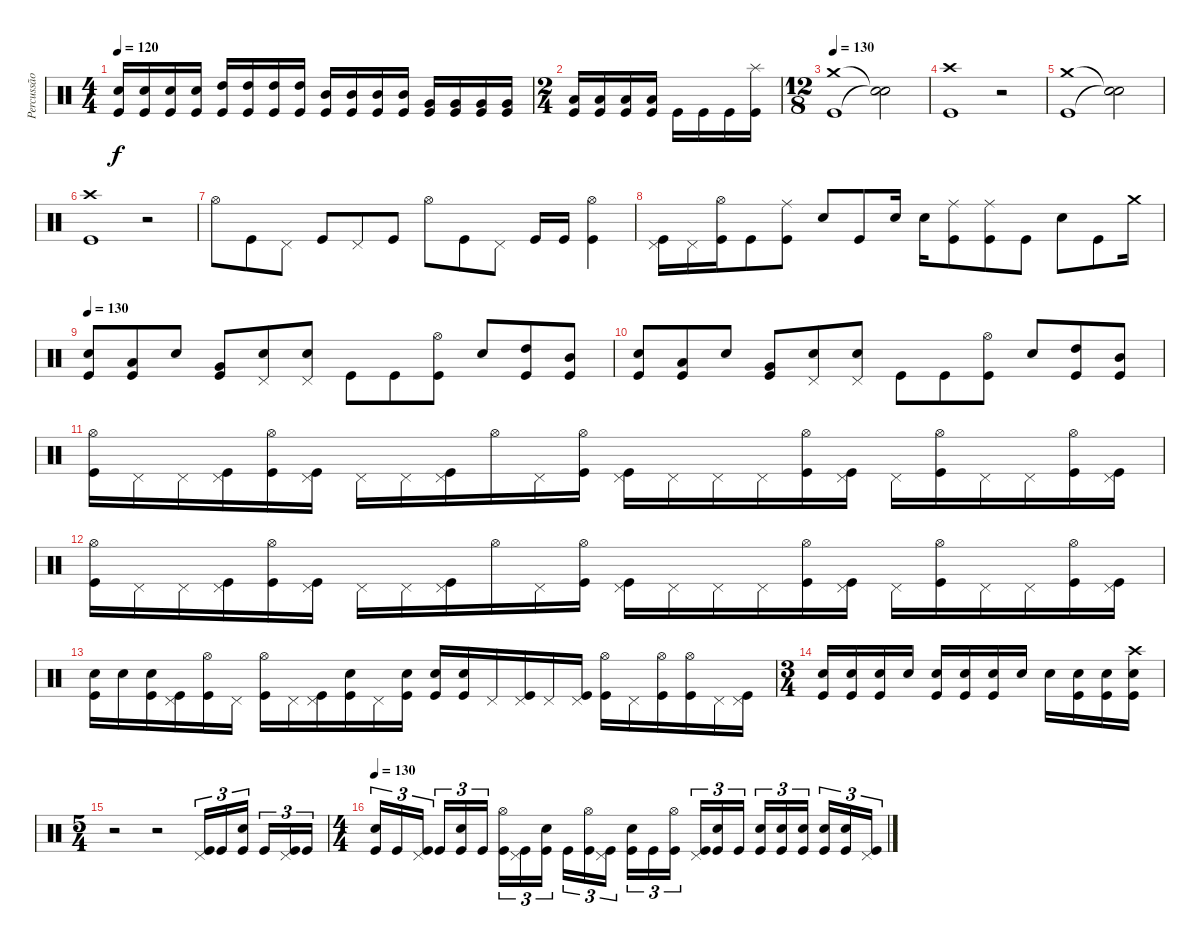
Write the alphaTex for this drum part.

\track ("Percussão" "Percussão") {instrument percussion}
\staff {score}
\articulation defaults
\ts (4 4)
\tempo 120
\clef neutral
\ks c
("Kick (hit)" "Snare (hit) 2").16{dy f} ("Kick (hit)" "Snare (hit) 2").16 ("Kick (hit)" "Snare (hit) 2").16 ("Kick (hit)" "Snare (hit) 2").16 ("Kick (hit)" "High Tom (hit)").16 ("Kick (hit)" "High Tom (hit)").16 ("Kick (hit)" "High Tom (hit)").16 ("Kick (hit)" "High Tom (hit)").16 ("Kick (hit)" "Mid Tom (hit)").16 ("Kick (hit)" "Mid Tom (hit)").16 ("Kick (hit)" "Mid Tom (hit)").16 ("Kick (hit)" "Mid Tom (hit)").16 ("Kick (hit)" "Very Low Tom (hit)").16 ("Kick (hit)" "Very Low Tom (hit)").16 ("Kick (hit)" "Very Low Tom (hit)").16 ("Kick (hit)" "Very Low Tom (hit)").16 |
\ts (2 4)
("Kick (hit)" "Low Floor Tom (hit)").16 ("Kick (hit)" "Low Floor Tom (hit)").16 ("Kick (hit)" "Low Floor Tom (hit)").16 ("Kick (hit)" "Low Floor Tom (hit)").16 "Kick (hit)".16 "Kick (hit)".16 "Kick (hit)".16 ("Kick (hit)" "Splash (hit)").16 |
\ts (12 8)
\tempo 130
("Kick (hit)" "Crash medium (hit)").1 ("Snare (hit)"{t} "Snare (hit)"{t}).2 |
("Kick (hit)" "Crash high (hit)").1 r.2 |
("Kick (hit)" "Crash medium (hit)").1 ("Snare (hit)"{t} "Snare (hit)"{t}).2 |
("Kick (hit)" "Crash high (hit)").1 r.2 |
"Hi-Hat (open)".8 "Kick (hit)".8 "Pedal Hi-Hat (hit)".8 "Kick (hit)".8 "Pedal Hi-Hat (hit)".8 "Kick (hit)".8 "Hi-Hat (open)".8 "Kick (hit)".8 "Pedal Hi-Hat (hit)".8 "Kick (hit)".16 "Kick (hit)".16 ("Kick (hit)" "Hi-Hat (open)").4 |
("Kick (hit)" "Pedal Hi-Hat (hit)").16 "Pedal Hi-Hat (hit)".16 ("Kick (hit)" "Hi-Hat (open)").16 "Kick (hit)".8 ("Kick (hit)" "Ride (middle)").8 "Snare (hit) 2".8 "Kick (hit)".8 "Snare (hit) 2".16 "Snare (hit) 2".16 ("Kick (hit)" "Ride (middle)").8 ("Kick (hit)" "Ride (middle)").8 "Kick (hit)".8 "Snare (hit) 2".8 "Kick (hit)".8 "Crash medium (hit)".16 |
\tempo 130
("Kick (hit)" "Snare (hit) 2").8 ("Kick (hit)" "Low Tom (hit)").8 "Snare (hit) 2".8 ("Kick (hit)" "Very Low Tom (hit)").8 ("Snare (hit) 2" "Pedal Hi-Hat (hit)").8 ("Snare (hit) 2" "Pedal Hi-Hat (hit)").8 "Kick (hit)".8 "Kick (hit)".8 ("Kick (hit)" "Hi-Hat (open)").8 "Snare (hit) 2".8 ("Kick (hit)" "High Tom (hit)").8 ("Kick (hit)" "Mid Tom (hit)").8 |
("Kick (hit)" "Snare (hit) 2").8 ("Kick (hit)" "Low Tom (hit)").8 "Snare (hit) 2".8 ("Kick (hit)" "Very Low Tom (hit)").8 ("Snare (hit) 2" "Pedal Hi-Hat (hit)").8 ("Snare (hit) 2" "Pedal Hi-Hat (hit)").8 "Kick (hit)".8 "Kick (hit)".8 ("Kick (hit)" "Hi-Hat (open)").8 "Snare (hit) 2".8 ("Kick (hit)" "High Tom (hit)").8 ("Kick (hit)" "Mid Tom (hit)").8 |
("Kick (hit)" "Hi-Hat (open)").16 "Pedal Hi-Hat (hit)".16 "Pedal Hi-Hat (hit)".16 ("Kick (hit)" "Pedal Hi-Hat (hit)").16 ("Kick (hit)" "Hi-Hat (open)").16 ("Kick (hit)" "Pedal Hi-Hat (hit)").16 "Pedal Hi-Hat (hit)".16 "Pedal Hi-Hat (hit)".16 ("Kick (hit)" "Pedal Hi-Hat (hit)").16 "Hi-Hat (open)".16 "Pedal Hi-Hat (hit)".16 ("Kick (hit)" "Hi-Hat (open)").16 ("Kick (hit)" "Pedal Hi-Hat (hit)").16 "Pedal Hi-Hat (hit)".16 "Pedal Hi-Hat (hit)".16 "Pedal Hi-Hat (hit)".16 ("Kick (hit)" "Hi-Hat (open)").16 ("Kick (hit)" "Pedal Hi-Hat (hit)").16 "Pedal Hi-Hat (hit)".16 ("Kick (hit)" "Hi-Hat (open)").16 "Pedal Hi-Hat (hit)".16 "Pedal Hi-Hat (hit)".16 ("Kick (hit)" "Hi-Hat (open)").16 ("Kick (hit)" "Pedal Hi-Hat (hit)").16 |
("Kick (hit)" "Hi-Hat (open)").16 "Pedal Hi-Hat (hit)".16 "Pedal Hi-Hat (hit)".16 ("Kick (hit)" "Pedal Hi-Hat (hit)").16 ("Kick (hit)" "Hi-Hat (open)").16 ("Kick (hit)" "Pedal Hi-Hat (hit)").16 "Pedal Hi-Hat (hit)".16 "Pedal Hi-Hat (hit)".16 ("Kick (hit)" "Pedal Hi-Hat (hit)").16 "Hi-Hat (open)".16 "Pedal Hi-Hat (hit)".16 ("Kick (hit)" "Hi-Hat (open)").16 ("Kick (hit)" "Pedal Hi-Hat (hit)").16 "Pedal Hi-Hat (hit)".16 "Pedal Hi-Hat (hit)".16 "Pedal Hi-Hat (hit)".16 ("Kick (hit)" "Hi-Hat (open)").16 ("Kick (hit)" "Pedal Hi-Hat (hit)").16 "Pedal Hi-Hat (hit)".16 ("Kick (hit)" "Hi-Hat (open)").16 "Pedal Hi-Hat (hit)".16 "Pedal Hi-Hat (hit)".16 ("Kick (hit)" "Hi-Hat (open)").16 ("Kick (hit)" "Pedal Hi-Hat (hit)").16 |
("Kick (hit)" "Snare (hit) 2").16 "Snare (hit) 2".16 ("Kick (hit)" "Snare (hit) 2").16 ("Kick (hit)" "Pedal Hi-Hat (hit)").16 ("Kick (hit)" "Hi-Hat (open)").16 "Pedal Hi-Hat (hit)".16 ("Kick (hit)" "Hi-Hat (open)").16 "Pedal Hi-Hat (hit)".16 ("Kick (hit)" "Pedal Hi-Hat (hit)").16 ("Kick (hit)" "Snare (hit) 2").16 "Pedal Hi-Hat (hit)".16 ("Kick (hit)" "Snare (hit) 2").16 ("Kick (hit)" "Snare (hit) 2").16 ("Kick (hit)" "Snare (hit) 2").16 "Pedal Hi-Hat (hit)".16 ("Kick (hit)" "Pedal Hi-Hat (hit)").16 "Pedal Hi-Hat (hit)".16 ("Kick (hit)" "Pedal Hi-Hat (hit)").16 ("Kick (hit)" "Hi-Hat (open)").16 "Pedal Hi-Hat (hit)".16 ("Kick (hit)" "Hi-Hat (open)").16 ("Kick (hit)" "Hi-Hat (open)").16 "Pedal Hi-Hat (hit)".16 ("Kick (hit)" "Pedal Hi-Hat (hit)").16 |
\ts (3 4)
("Kick (hit)" "Snare (hit) 2").16 ("Kick (hit)" "Snare (hit) 2").16 ("Kick (hit)" "Snare (hit) 2").16 "Snare (hit) 2".16 ("Kick (hit)" "Snare (hit) 2").16 ("Kick (hit)" "Snare (hit) 2").16 ("Kick (hit)" "Snare (hit) 2").16 "Snare (hit) 2".16 "Snare (hit) 2".16 ("Kick (hit)" "Snare (hit) 2").16 ("Kick (hit)" "Snare (hit) 2").16 ("Kick (hit)" "Snare (hit) 2" "Crash high (hit)").16 |
\ts (5 4)
r.2 r.2 ("Kick (hit)" "Pedal Hi-Hat (hit)").16{tu (3 2)} "Kick (hit)".16{tu (3 2)} ("Kick (hit)" "Snare (hit) 2").16{tu (3 2)} "Kick (hit)".16{tu (3 2)} ("Kick (hit)" "Pedal Hi-Hat (hit)").16{tu (3 2)} "Kick (hit)".16{tu (3 2)} |
\ts (4 4)
\tempo 130
("Kick (hit)" "Snare (hit) 2").16{tu (3 2)} "Kick (hit)".16{tu (3 2)} ("Kick (hit)" "Pedal Hi-Hat (hit)").16{tu (3 2)} "Kick (hit)".16{tu (3 2)} ("Kick (hit)" "Snare (hit) 2").16{tu (3 2)} "Kick (hit)".16{tu (3 2)} ("Kick (hit)" "Hi-Hat (open)").16{tu (3 2)} ("Kick (hit)" "Pedal Hi-Hat (hit)").16{tu (3 2)} ("Kick (hit)" "Snare (hit) 2").16{tu (3 2)} "Kick (hit)".16{tu (3 2)} ("Kick (hit)" "Hi-Hat (open)").16{tu (3 2)} ("Kick (hit)" "Pedal Hi-Hat (hit)").16{tu (3 2)} ("Kick (hit)" "Snare (hit) 2").16{tu (3 2)} "Kick (hit)".16{tu (3 2)} ("Kick (hit)" "Hi-Hat (open)").16{tu (3 2)} ("Kick (hit)" "Pedal Hi-Hat (hit)").16{tu (3 2)} ("Kick (hit)" "Snare (hit) 2").16{tu (3 2)} "Kick (hit)".16{tu (3 2)} ("Kick (hit)" "Snare (hit) 2").16{tu (3 2)} ("Kick (hit)" "Snare (hit) 2").16{tu (3 2)} ("Kick (hit)" "Snare (hit) 2").16{tu (3 2)} ("Kick (hit)" "Snare (hit) 2").16{tu (3 2)} ("Kick (hit)" "Snare (hit) 2").16{tu (3 2)} ("Kick (hit)" "Pedal Hi-Hat (hit)").16{tu (3 2)}
